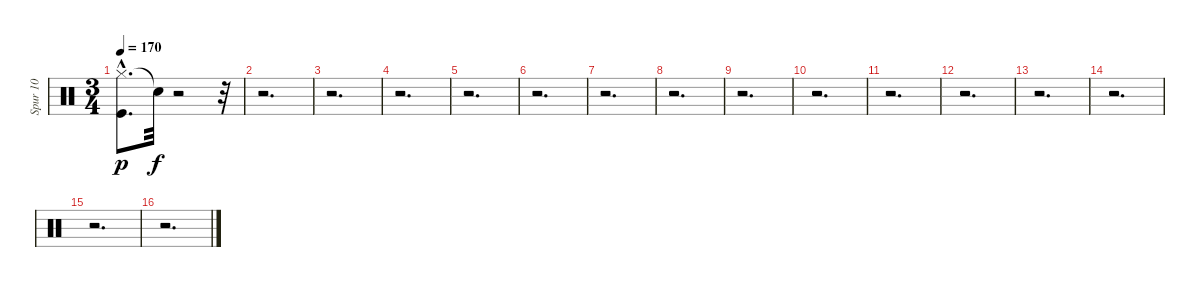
\track ("Spur 10" "Spur 10") {instrument percussion}
\staff {score}
\articulation defaults
\ts (3 4)
\tempo 170
\clef neutral
\ks c
("Hi-Hat (closed)" "Kick (hit)"{hac}).8{d dy p} "Snare (hit)"{t}.32{dy f} r.2 r.32 |
r.2{d} |
r.2{d} |
r.2{d} |
r.2{d} |
r.2{d} |
r.2{d} |
r.2{d} |
r.2{d} |
r.2{d} |
r.2{d} |
r.2{d} |
r.2{d} |
r.2{d} |
r.2{d} |
r.2{d}
